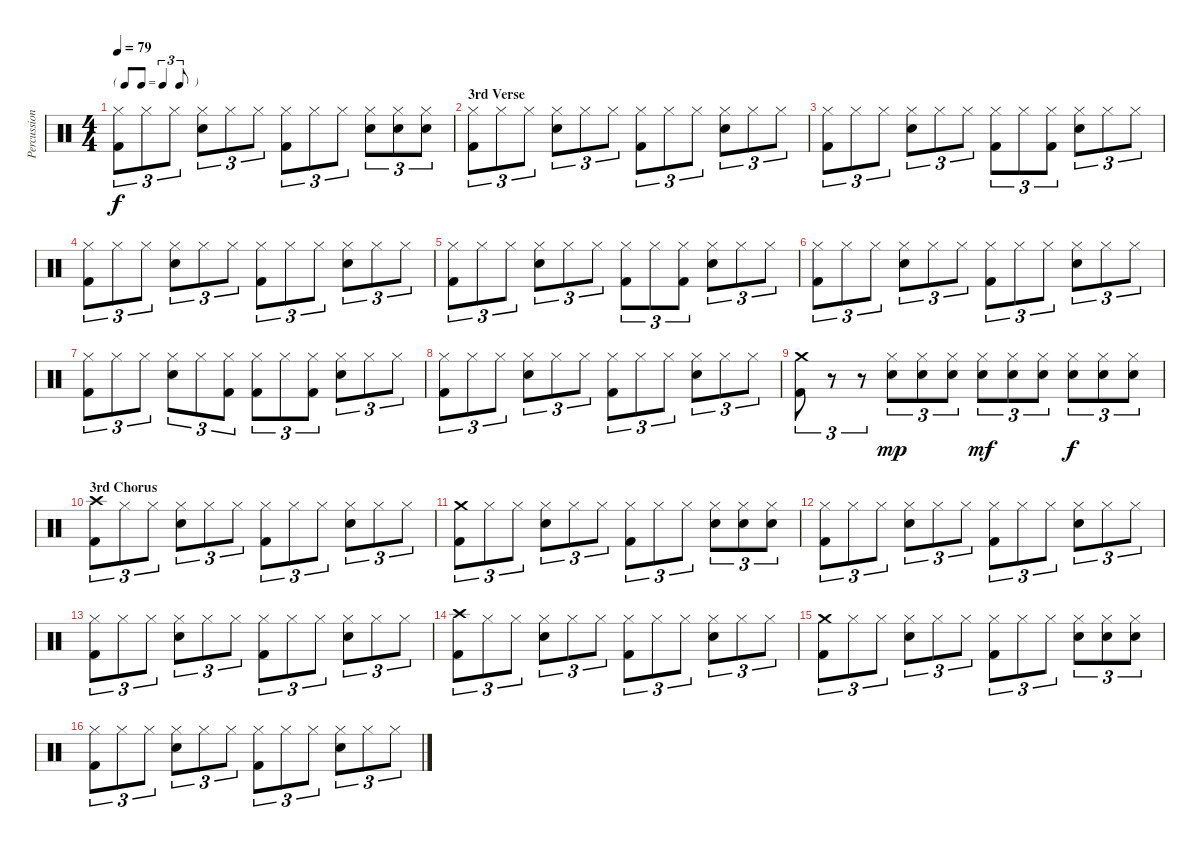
\track ("Percussion" "Percussion") {instrument percussion}
\staff {score}
\articulation defaults
\ts (4 4)
\tf triplet8th
\tempo 79
\clef neutral
\ks c
("Hi-Hat (closed)" "Kick (hit) 2").8{tu (3 2) dy f} "Hi-Hat (closed)".8{tu (3 2)} "Hi-Hat (closed)".8{tu (3 2)} ("Hi-Hat (closed)" "Snare (hit) 2").8{tu (3 2)} "Hi-Hat (closed)".8{tu (3 2)} "Hi-Hat (closed)".8{tu (3 2)} ("Hi-Hat (closed)" "Kick (hit) 2").8{tu (3 2)} "Hi-Hat (closed)".8{tu (3 2)} "Hi-Hat (closed)".8{tu (3 2)} ("Hi-Hat (closed)" "Snare (hit) 2").8{tu (3 2)} ("Hi-Hat (closed)" "Snare (hit) 2").8{tu (3 2)} ("Hi-Hat (closed)" "Snare (hit) 2").8{tu (3 2)} |
\section ("" "3rd Verse")
("Hi-Hat (closed)" "Kick (hit) 2").8{tu (3 2)} "Hi-Hat (closed)".8{tu (3 2)} "Hi-Hat (closed)".8{tu (3 2)} ("Hi-Hat (closed)" "Snare (hit) 2").8{tu (3 2)} "Hi-Hat (closed)".8{tu (3 2)} "Hi-Hat (closed)".8{tu (3 2)} ("Hi-Hat (closed)" "Kick (hit) 2").8{tu (3 2)} "Hi-Hat (closed)".8{tu (3 2)} "Hi-Hat (closed)".8{tu (3 2)} ("Hi-Hat (closed)" "Snare (hit) 2").8{tu (3 2)} "Hi-Hat (closed)".8{tu (3 2)} "Hi-Hat (closed)".8{tu (3 2)} |
("Hi-Hat (closed)" "Kick (hit) 2").8{tu (3 2)} "Hi-Hat (closed)".8{tu (3 2)} "Hi-Hat (closed)".8{tu (3 2)} ("Hi-Hat (closed)" "Snare (hit) 2").8{tu (3 2)} "Hi-Hat (closed)".8{tu (3 2)} "Hi-Hat (closed)".8{tu (3 2)} ("Hi-Hat (closed)" "Kick (hit) 2").8{tu (3 2)} "Hi-Hat (closed)".8{tu (3 2)} ("Hi-Hat (closed)" "Kick (hit) 2").8{tu (3 2)} ("Hi-Hat (closed)" "Snare (hit) 2").8{tu (3 2)} "Hi-Hat (closed)".8{tu (3 2)} "Hi-Hat (closed)".8{tu (3 2)} |
("Hi-Hat (closed)" "Kick (hit) 2").8{tu (3 2)} "Hi-Hat (closed)".8{tu (3 2)} "Hi-Hat (closed)".8{tu (3 2)} ("Hi-Hat (closed)" "Snare (hit) 2").8{tu (3 2)} "Hi-Hat (closed)".8{tu (3 2)} "Hi-Hat (closed)".8{tu (3 2)} ("Hi-Hat (closed)" "Kick (hit) 2").8{tu (3 2)} "Hi-Hat (closed)".8{tu (3 2)} "Hi-Hat (closed)".8{tu (3 2)} ("Hi-Hat (closed)" "Snare (hit) 2").8{tu (3 2)} "Hi-Hat (closed)".8{tu (3 2)} "Hi-Hat (closed)".8{tu (3 2)} |
("Hi-Hat (closed)" "Kick (hit) 2").8{tu (3 2)} "Hi-Hat (closed)".8{tu (3 2)} "Hi-Hat (closed)".8{tu (3 2)} ("Hi-Hat (closed)" "Snare (hit) 2").8{tu (3 2)} "Hi-Hat (closed)".8{tu (3 2)} "Hi-Hat (closed)".8{tu (3 2)} ("Hi-Hat (closed)" "Kick (hit) 2").8{tu (3 2)} "Hi-Hat (closed)".8{tu (3 2)} ("Hi-Hat (closed)" "Kick (hit) 2").8{tu (3 2)} ("Hi-Hat (closed)" "Snare (hit) 2").8{tu (3 2)} "Hi-Hat (closed)".8{tu (3 2)} "Hi-Hat (closed)".8{tu (3 2)} |
("Hi-Hat (closed)" "Kick (hit) 2").8{tu (3 2)} "Hi-Hat (closed)".8{tu (3 2)} "Hi-Hat (closed)".8{tu (3 2)} ("Hi-Hat (closed)" "Snare (hit) 2").8{tu (3 2)} "Hi-Hat (closed)".8{tu (3 2)} "Hi-Hat (closed)".8{tu (3 2)} ("Hi-Hat (closed)" "Kick (hit) 2").8{tu (3 2)} "Hi-Hat (closed)".8{tu (3 2)} "Hi-Hat (closed)".8{tu (3 2)} ("Hi-Hat (closed)" "Snare (hit) 2").8{tu (3 2)} "Hi-Hat (closed)".8{tu (3 2)} "Hi-Hat (closed)".8{tu (3 2)} |
("Hi-Hat (closed)" "Kick (hit) 2").8{tu (3 2)} "Hi-Hat (closed)".8{tu (3 2)} "Hi-Hat (closed)".8{tu (3 2)} ("Hi-Hat (closed)" "Snare (hit) 2").8{tu (3 2)} "Hi-Hat (closed)".8{tu (3 2)} ("Hi-Hat (closed)" "Kick (hit) 2").8{tu (3 2)} ("Hi-Hat (closed)" "Kick (hit) 2").8{tu (3 2)} "Hi-Hat (closed)".8{tu (3 2)} ("Hi-Hat (closed)" "Kick (hit) 2").8{tu (3 2)} ("Hi-Hat (closed)" "Snare (hit) 2").8{tu (3 2)} "Hi-Hat (closed)".8{tu (3 2)} "Hi-Hat (closed)".8{tu (3 2)} |
("Hi-Hat (closed)" "Kick (hit) 2").8{tu (3 2)} "Hi-Hat (closed)".8{tu (3 2)} "Hi-Hat (closed)".8{tu (3 2)} ("Hi-Hat (closed)" "Snare (hit) 2").8{tu (3 2)} "Hi-Hat (closed)".8{tu (3 2)} "Hi-Hat (closed)".8{tu (3 2)} ("Hi-Hat (closed)" "Kick (hit) 2").8{tu (3 2)} "Hi-Hat (closed)".8{tu (3 2)} "Hi-Hat (closed)".8{tu (3 2)} ("Hi-Hat (closed)" "Snare (hit) 2").8{tu (3 2)} "Hi-Hat (closed)".8{tu (3 2)} "Hi-Hat (closed)".8{tu (3 2)} |
("Crash medium (hit)" "Kick (hit) 2").8{tu (3 2)} r.8{tu (3 2)} r.8{tu (3 2)} ("Hi-Hat (closed)" "Snare (hit) 2").8{tu (3 2) dy mp} ("Hi-Hat (closed)" "Snare (hit) 2").8{tu (3 2)} ("Hi-Hat (closed)" "Snare (hit) 2").8{tu (3 2)} ("Hi-Hat (closed)" "Snare (hit) 2").8{tu (3 2) dy mf} ("Hi-Hat (closed)" "Snare (hit) 2").8{tu (3 2)} ("Hi-Hat (closed)" "Snare (hit) 2").8{tu (3 2)} ("Hi-Hat (closed)" "Snare (hit) 2").8{tu (3 2) dy f} ("Hi-Hat (closed)" "Snare (hit) 2").8{tu (3 2)} ("Hi-Hat (closed)" "Snare (hit) 2").8{tu (3 2)} |
\section ("" "3rd Chorus")
("Crash high (hit)" "Kick (hit) 2").8{tu (3 2)} "Hi-Hat (closed)".8{tu (3 2)} "Hi-Hat (closed)".8{tu (3 2)} ("Hi-Hat (closed)" "Snare (hit) 2").8{tu (3 2)} "Hi-Hat (closed)".8{tu (3 2)} "Hi-Hat (closed)".8{tu (3 2)} ("Hi-Hat (closed)" "Kick (hit) 2").8{tu (3 2)} "Hi-Hat (closed)".8{tu (3 2)} "Hi-Hat (closed)".8{tu (3 2)} ("Hi-Hat (closed)" "Snare (hit) 2").8{tu (3 2)} "Hi-Hat (closed)".8{tu (3 2)} "Hi-Hat (closed)".8{tu (3 2)} |
("Crash medium (hit)" "Kick (hit) 2").8{tu (3 2)} "Hi-Hat (closed)".8{tu (3 2)} "Hi-Hat (closed)".8{tu (3 2)} ("Hi-Hat (closed)" "Snare (hit) 2").8{tu (3 2)} "Hi-Hat (closed)".8{tu (3 2)} "Hi-Hat (closed)".8{tu (3 2)} ("Hi-Hat (closed)" "Kick (hit) 2").8{tu (3 2)} "Hi-Hat (closed)".8{tu (3 2)} "Hi-Hat (closed)".8{tu (3 2)} ("Hi-Hat (closed)" "Snare (hit) 2").8{tu (3 2)} ("Hi-Hat (closed)" "Snare (hit) 2").8{tu (3 2)} ("Hi-Hat (closed)" "Snare (hit) 2").8{tu (3 2)} |
("Hi-Hat (closed)" "Kick (hit) 2").8{tu (3 2)} "Hi-Hat (closed)".8{tu (3 2)} "Hi-Hat (closed)".8{tu (3 2)} ("Hi-Hat (closed)" "Snare (hit) 2").8{tu (3 2)} "Hi-Hat (closed)".8{tu (3 2)} "Hi-Hat (closed)".8{tu (3 2)} ("Hi-Hat (closed)" "Kick (hit) 2").8{tu (3 2)} "Hi-Hat (closed)".8{tu (3 2)} "Hi-Hat (closed)".8{tu (3 2)} ("Hi-Hat (closed)" "Snare (hit) 2").8{tu (3 2)} "Hi-Hat (closed)".8{tu (3 2)} "Hi-Hat (closed)".8{tu (3 2)} |
("Hi-Hat (closed)" "Kick (hit) 2").8{tu (3 2)} "Hi-Hat (closed)".8{tu (3 2)} "Hi-Hat (closed)".8{tu (3 2)} ("Hi-Hat (closed)" "Snare (hit) 2").8{tu (3 2)} "Hi-Hat (closed)".8{tu (3 2)} "Hi-Hat (closed)".8{tu (3 2)} ("Hi-Hat (closed)" "Kick (hit) 2").8{tu (3 2)} "Hi-Hat (closed)".8{tu (3 2)} "Hi-Hat (closed)".8{tu (3 2)} ("Hi-Hat (closed)" "Snare (hit) 2").8{tu (3 2)} "Hi-Hat (closed)".8{tu (3 2)} "Hi-Hat (closed)".8{tu (3 2)} |
("Crash high (hit)" "Kick (hit) 2").8{tu (3 2)} "Hi-Hat (closed)".8{tu (3 2)} "Hi-Hat (closed)".8{tu (3 2)} ("Hi-Hat (closed)" "Snare (hit) 2").8{tu (3 2)} "Hi-Hat (closed)".8{tu (3 2)} "Hi-Hat (closed)".8{tu (3 2)} ("Hi-Hat (closed)" "Kick (hit) 2").8{tu (3 2)} "Hi-Hat (closed)".8{tu (3 2)} "Hi-Hat (closed)".8{tu (3 2)} ("Hi-Hat (closed)" "Snare (hit) 2").8{tu (3 2)} "Hi-Hat (closed)".8{tu (3 2)} "Hi-Hat (closed)".8{tu (3 2)} |
("Crash medium (hit)" "Kick (hit) 2").8{tu (3 2)} "Hi-Hat (closed)".8{tu (3 2)} "Hi-Hat (closed)".8{tu (3 2)} ("Hi-Hat (closed)" "Snare (hit) 2").8{tu (3 2)} "Hi-Hat (closed)".8{tu (3 2)} "Hi-Hat (closed)".8{tu (3 2)} ("Hi-Hat (closed)" "Kick (hit) 2").8{tu (3 2)} "Hi-Hat (closed)".8{tu (3 2)} "Hi-Hat (closed)".8{tu (3 2)} ("Hi-Hat (closed)" "Snare (hit) 2").8{tu (3 2)} ("Hi-Hat (closed)" "Snare (hit) 2").8{tu (3 2)} ("Hi-Hat (closed)" "Snare (hit) 2").8{tu (3 2)} |
("Hi-Hat (closed)" "Kick (hit) 2").8{tu (3 2)} "Hi-Hat (closed)".8{tu (3 2)} "Hi-Hat (closed)".8{tu (3 2)} ("Hi-Hat (closed)" "Snare (hit) 2").8{tu (3 2)} "Hi-Hat (closed)".8{tu (3 2)} "Hi-Hat (closed)".8{tu (3 2)} ("Hi-Hat (closed)" "Kick (hit) 2").8{tu (3 2)} "Hi-Hat (closed)".8{tu (3 2)} "Hi-Hat (closed)".8{tu (3 2)} ("Hi-Hat (closed)" "Snare (hit) 2").8{tu (3 2)} "Hi-Hat (closed)".8{tu (3 2)} "Hi-Hat (closed)".8{tu (3 2)}
